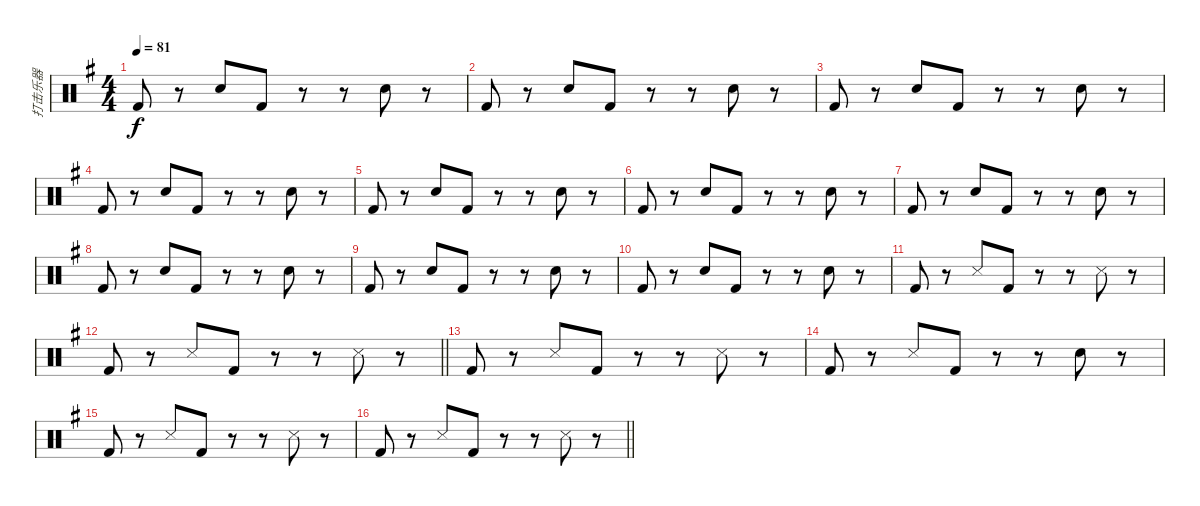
\track ("打击乐器" "打击乐器") {instrument percussion}
\staff {score}
\articulation defaults
\ts (4 4)
\tempo 81
\clef neutral
\ks g "Kick (hit) 2".8{dy f}
r.8 "Electric Snare (hit)".8 "Kick (hit) 2".8 r.8 r.8 "Electric Snare (hit)".8 r.8 |
"Kick (hit) 2".8 r.8 "Electric Snare (hit)".8 "Kick (hit) 2".8 r.8 r.8 "Electric Snare (hit)".8 r.8 |
"Kick (hit) 2".8 r.8 "Electric Snare (hit)".8 "Kick (hit) 2".8 r.8 r.8 "Electric Snare (hit)".8 r.8 |
"Kick (hit) 2".8 r.8 "Electric Snare (hit)".8 "Kick (hit) 2".8 r.8 r.8 "Electric Snare (hit)".8 r.8 |
"Kick (hit) 2".8 r.8 "Electric Snare (hit)".8 "Kick (hit) 2".8 r.8 r.8 "Electric Snare (hit)".8 r.8 |
"Kick (hit) 2".8 r.8 "Electric Snare (hit)".8 "Kick (hit) 2".8 r.8 r.8 "Electric Snare (hit)".8 r.8 |
"Kick (hit) 2".8 r.8 "Electric Snare (hit)".8 "Kick (hit) 2".8 r.8 r.8 "Electric Snare (hit)".8 r.8 |
"Kick (hit) 2".8 r.8 "Electric Snare (hit)".8 "Kick (hit) 2".8 r.8 r.8 "Electric Snare (hit)".8 r.8 |
"Kick (hit) 2".8 r.8 "Electric Snare (hit)".8 "Kick (hit) 2".8 r.8 r.8 "Electric Snare (hit)".8 r.8 |
"Kick (hit) 2".8 r.8 "Electric Snare (hit)".8 "Kick (hit) 2".8 r.8 r.8 "Electric Snare (hit)".8 r.8 |
"Kick (hit) 2".8 r.8 "Metronome (hit)".8 "Kick (hit) 2".8 r.8 r.8 "Metronome (hit)".8 r.8 |
\barLineRight lightlight "Kick (hit) 2".8
r.8 "Metronome (hit)".8 "Kick (hit) 2".8 r.8 r.8 "Metronome (hit)".8 r.8 |
"Kick (hit) 2".8 r.8 "Metronome (hit)".8 "Kick (hit) 2".8 r.8 r.8 "Metronome (hit)".8 r.8 |
"Kick (hit) 2".8 r.8 "Metronome (hit)".8 "Kick (hit) 2".8 r.8 r.8 "Electric Snare (hit)".8 r.8 |
"Kick (hit) 2".8 r.8 "Metronome (hit)".8 "Kick (hit) 2".8 r.8 r.8 "Metronome (hit)".8 r.8 |
\barLineRight lightlight "Kick (hit) 2".8
r.8 "Metronome (hit)".8 "Kick (hit) 2".8 r.8 r.8 "Metronome (hit)".8 r.8
